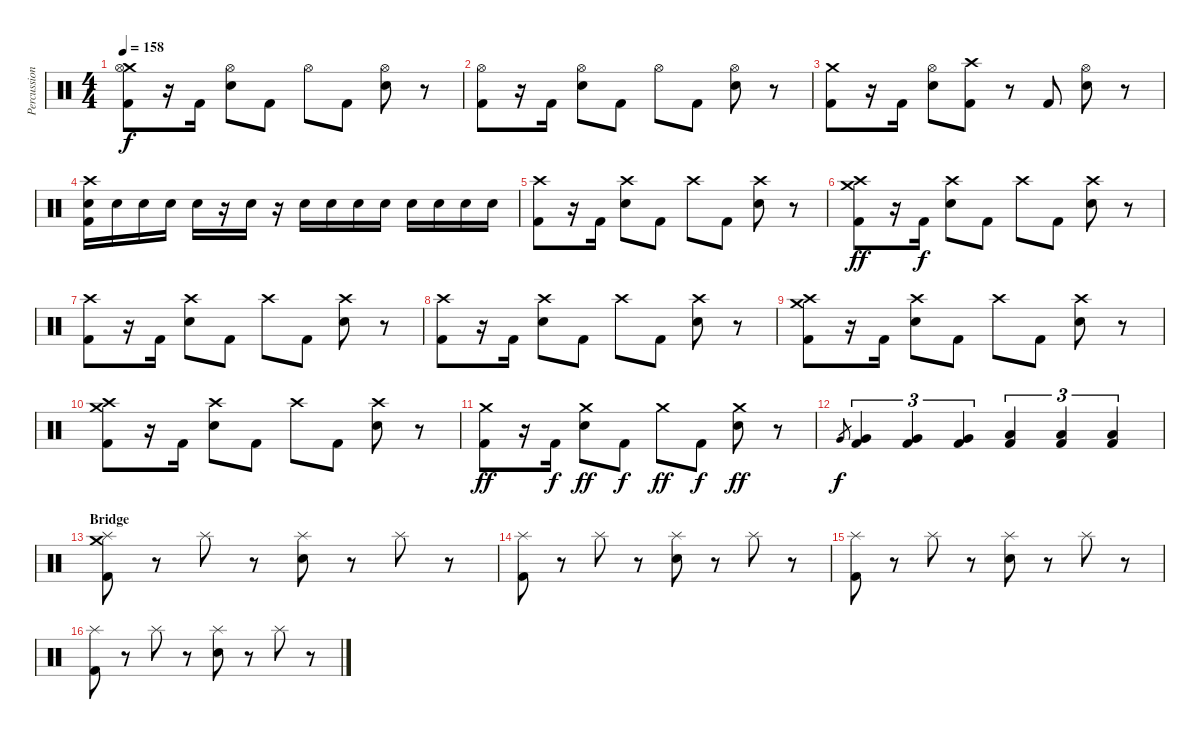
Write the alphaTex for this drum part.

\track ("Percussions" "Percussion") {instrument percussion}
\staff {score}
\articulation defaults
\ts (4 4)
\tempo 158
\clef neutral
\ks c
("Crash medium (hit)" "Hi-Hat (open)" "Kick (hit) 2").8{dy f} r.16 "Kick (hit) 2".16 ("Hi-Hat (open)" "Electric Snare (hit)").8 "Kick (hit) 2".8 "Hi-Hat (open)".8 "Kick (hit) 2".8 ("Hi-Hat (open)" "Electric Snare (hit)").8 r.8 |
("Hi-Hat (open)" "Kick (hit) 2").8 r.16 "Kick (hit) 2".16 ("Hi-Hat (open)" "Electric Snare (hit)").8 "Kick (hit) 2".8 "Hi-Hat (open)".8 "Kick (hit) 2".8 ("Hi-Hat (open)" "Electric Snare (hit)").8 r.8 |
("Crash medium (hit)" "Kick (hit) 2").8 r.16 "Kick (hit) 2".16 ("Hi-Hat (open)" "Electric Snare (hit)").8 ("Crash high (hit)" "Kick (hit) 2").8 r.8 "Kick (hit) 2".8 ("Hi-Hat (open)" "Electric Snare (hit)").8 r.8 |
("Crash high (hit)" "Electric Snare (hit)" "Kick (hit) 2").16 "Electric Snare (hit)".16 "Electric Snare (hit)".16 "Electric Snare (hit)".16 "Electric Snare (hit)".16 r.16 "Electric Snare (hit)".16 r.16 "Electric Snare (hit)".16 "Electric Snare (hit)".16 "Electric Snare (hit)".16 "Electric Snare (hit)".16 "Electric Snare (hit)".16 "Electric Snare (hit)".16 "Electric Snare (hit)".16 "Electric Snare (hit)".16 |
("Crash high (hit)" "Kick (hit) 2").8 r.16 "Kick (hit) 2".16 ("Crash high (hit)" "Electric Snare (hit)").8 "Kick (hit) 2".8 "Crash high (hit)".8 "Kick (hit) 2".8 ("Crash high (hit)" "Electric Snare (hit)").8 r.8 |
("Crash high (hit)" "Crash medium (hit)" "Kick (hit) 2").8{dy ff} r.16 "Kick (hit) 2".16{dy f} ("Crash high (hit)" "Electric Snare (hit)").8 "Kick (hit) 2".8 "Crash high (hit)".8 "Kick (hit) 2".8 ("Crash high (hit)" "Electric Snare (hit)").8 r.8 |
("Crash high (hit)" "Kick (hit) 2").8 r.16 "Kick (hit) 2".16 ("Crash high (hit)" "Electric Snare (hit)").8 "Kick (hit) 2".8 "Crash high (hit)".8 "Kick (hit) 2".8 ("Crash high (hit)" "Electric Snare (hit)").8 r.8 |
("Crash high (hit)" "Kick (hit) 2").8 r.16 "Kick (hit) 2".16 ("Crash high (hit)" "Electric Snare (hit)").8 "Kick (hit) 2".8 "Crash high (hit)".8 "Kick (hit) 2".8 ("Crash high (hit)" "Electric Snare (hit)").8 r.8 |
("Crash medium (hit)" "Crash high (hit)" "Kick (hit) 2").8 r.16 "Kick (hit) 2".16 ("Crash high (hit)" "Electric Snare (hit)").8 "Kick (hit) 2".8 "Crash high (hit)".8 "Kick (hit) 2".8 ("Crash high (hit)" "Electric Snare (hit)").8 r.8 |
("Crash medium (hit)" "Crash high (hit)" "Kick (hit) 2").8 r.16 "Kick (hit) 2".16 ("Crash high (hit)" "Electric Snare (hit)").8 "Kick (hit) 2".8 "Crash high (hit)".8 "Kick (hit) 2".8 ("Crash high (hit)" "Electric Snare (hit)").8 r.8 |
("Crash medium (hit)" "Kick (hit) 2").8{dy ff} r.16 "Kick (hit) 2".16{dy f} ("Crash medium (hit)" "Electric Snare (hit)").8{dy ff} "Kick (hit) 2".8{dy f} "Crash medium (hit)".8{dy ff} "Kick (hit) 2".8{dy f} ("Crash medium (hit)" "Electric Snare (hit)").8{dy ff} r.8 |
"Very Low Tom (hit)".8{gr dy f} ("Very Low Tom (hit)" "Kick (hit) 2").4{tu (3 2)} ("Very Low Tom (hit)" "Kick (hit) 2").4{tu (3 2)} ("Very Low Tom (hit)" "Kick (hit) 2").4{tu (3 2)} ("Low Floor Tom (hit)" "Kick (hit) 2").4{tu (3 2)} ("Low Floor Tom (hit)" "Kick (hit) 2").4{tu (3 2)} ("Low Floor Tom (hit)" "Kick (hit) 2").4{tu (3 2)} |
\section ("" "Bridge")
("Crash medium (hit)" "Splash (hit)" "Kick (hit) 2").8 r.8 "Splash (hit)".8 r.8 ("Splash (hit)" "Electric Snare (hit)").8 r.8 "Splash (hit)".8 r.8 |
("Splash (hit)" "Kick (hit) 2").8 r.8 "Splash (hit)".8 r.8 ("Splash (hit)" "Electric Snare (hit)").8 r.8 "Splash (hit)".8 r.8 |
("Splash (hit)" "Kick (hit) 2").8 r.8 "Splash (hit)".8 r.8 ("Splash (hit)" "Electric Snare (hit)").8 r.8 "Splash (hit)".8 r.8 |
("Splash (hit)" "Kick (hit) 2").8 r.8 "Splash (hit)".8 r.8 ("Splash (hit)" "Electric Snare (hit)").8 r.8 "Splash (hit)".8 r.8
